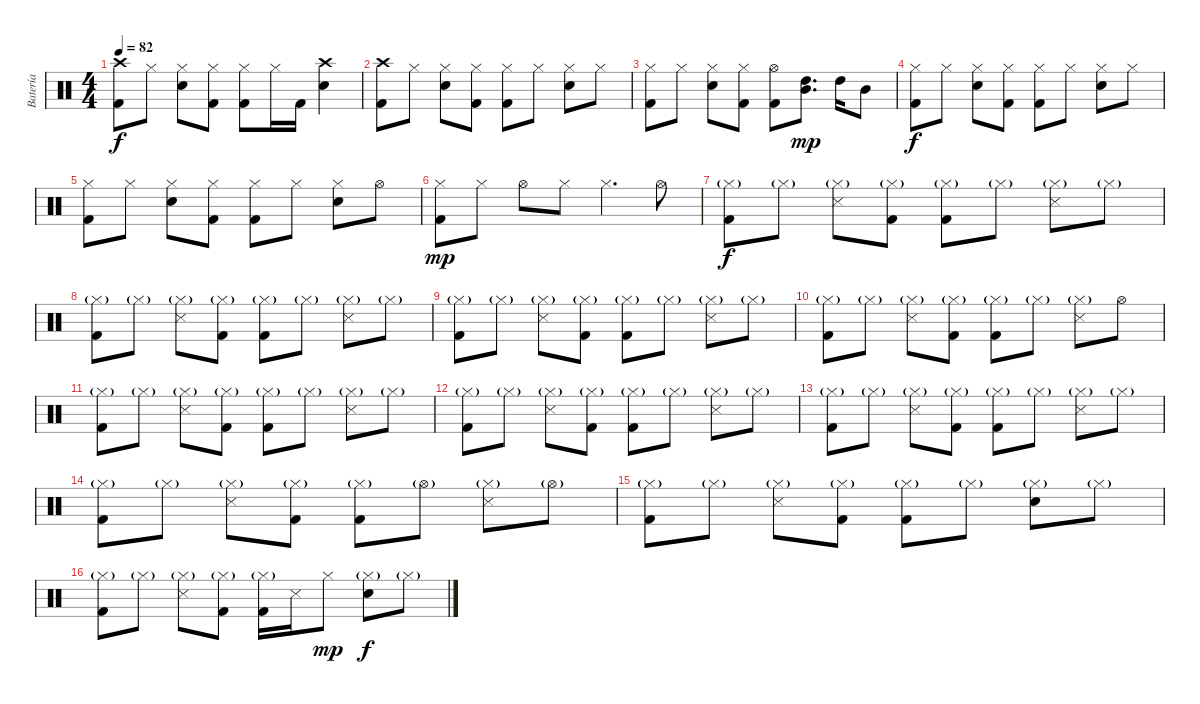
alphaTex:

\track ("Batería" "Batería") {instrument percussion}
\staff {score}
\articulation defaults
\ts (4 4)
\tempo 82
\clef neutral
\ks c
("Kick (hit) 2" "Crash high (hit)").8{dy f} "Hi-Hat (closed)".8 ("Hi-Hat (closed)" "Snare (hit) 2").8 ("Hi-Hat (closed)" "Kick (hit) 2").8 ("Hi-Hat (closed)" "Kick (hit) 2").8 "Hi-Hat (closed)".16 "Kick (hit) 2".16 ("Crash high (hit)" "Snare (hit) 2").4 |
("Kick (hit) 2" "Crash high (hit)").8 "Hi-Hat (closed)".8 ("Hi-Hat (closed)" "Snare (hit) 2").8 ("Hi-Hat (closed)" "Kick (hit) 2").8 ("Hi-Hat (closed)" "Kick (hit) 2").8 "Hi-Hat (closed)".8 ("Hi-Hat (closed)" "Snare (hit) 2").8 "Hi-Hat (closed)".8 |
("Kick (hit) 2" "Hi-Hat (closed)").8 "Hi-Hat (closed)".8 ("Hi-Hat (closed)" "Snare (hit) 2").8 ("Hi-Hat (closed)" "Kick (hit) 2").8 ("Hi-Hat (open)" "Kick (hit) 2").8 ("High Tom (hit)" "Mid Tom (hit)").8{d dy mp} "High Tom (hit)".16 "Mid Tom (hit)".8 |
("Kick (hit) 2" "Hi-Hat (closed)").8{dy f} "Hi-Hat (closed)".8 ("Hi-Hat (closed)" "Snare (hit) 2").8 ("Hi-Hat (closed)" "Kick (hit) 2").8 ("Hi-Hat (closed)" "Kick (hit) 2").8 "Hi-Hat (closed)".8 ("Hi-Hat (closed)" "Snare (hit) 2").8 "Hi-Hat (closed)".8 |
("Kick (hit) 2" "Hi-Hat (closed)").8 "Hi-Hat (closed)".8 ("Hi-Hat (closed)" "Snare (hit) 2").8 ("Hi-Hat (closed)" "Kick (hit) 2").8 ("Hi-Hat (closed)" "Kick (hit) 2").8 "Hi-Hat (closed)".8 ("Hi-Hat (closed)" "Snare (hit) 2").8 "Hi-Hat (open)".8 |
("Kick (hit) 2" "Hi-Hat (closed)").8{dy mp} "Hi-Hat (closed)".8 "Hi-Hat (open)".8 "Hi-Hat (closed)".8 "Hi-Hat (closed)".4{d} "Hi-Hat (open)".8 |
("Hi-Hat (closed)"{g} "Kick (hit) 2").8{dy f} "Hi-Hat (closed)"{g}.8 ("Hi-Hat (closed)"{g} "Snare (side stick) 3").8 ("Hi-Hat (closed)"{g} "Kick (hit) 2").8 ("Hi-Hat (closed)"{g} "Kick (hit) 2").8 "Hi-Hat (closed)"{g}.8 ("Hi-Hat (closed)"{g} "Snare (side stick) 3").8 "Hi-Hat (closed)"{g}.8 |
("Hi-Hat (closed)"{g} "Kick (hit) 2").8 "Hi-Hat (closed)"{g}.8 ("Hi-Hat (closed)"{g} "Snare (side stick) 3").8 ("Hi-Hat (closed)"{g} "Kick (hit) 2").8 ("Hi-Hat (closed)"{g} "Kick (hit) 2").8 "Hi-Hat (closed)"{g}.8 ("Hi-Hat (closed)"{g} "Snare (side stick) 3").8 "Hi-Hat (closed)"{g}.8 |
("Hi-Hat (closed)"{g} "Kick (hit) 2").8 "Hi-Hat (closed)"{g}.8 ("Hi-Hat (closed)"{g} "Snare (side stick) 3").8 ("Hi-Hat (closed)"{g} "Kick (hit) 2").8 ("Hi-Hat (closed)"{g} "Kick (hit) 2").8 "Hi-Hat (closed)"{g}.8 ("Hi-Hat (closed)"{g} "Snare (side stick) 3").8 "Hi-Hat (closed)"{g}.8 |
("Hi-Hat (closed)"{g} "Kick (hit) 2").8 "Hi-Hat (closed)"{g}.8 ("Hi-Hat (closed)"{g} "Snare (side stick) 3").8 ("Hi-Hat (closed)"{g} "Kick (hit) 2").8 ("Hi-Hat (closed)"{g} "Kick (hit) 2").8 "Hi-Hat (closed)"{g}.8 ("Hi-Hat (closed)"{g} "Snare (side stick) 3").8 "Hi-Hat (open)".8 |
("Hi-Hat (closed)"{g} "Kick (hit) 2").8 "Hi-Hat (closed)"{g}.8 ("Hi-Hat (closed)"{g} "Snare (side stick) 3").8 ("Hi-Hat (closed)"{g} "Kick (hit) 2").8 ("Hi-Hat (closed)"{g} "Kick (hit) 2").8 "Hi-Hat (closed)"{g}.8 ("Hi-Hat (closed)"{g} "Snare (side stick) 3").8 "Hi-Hat (closed)"{g}.8 |
("Hi-Hat (closed)"{g} "Kick (hit) 2").8 "Hi-Hat (closed)"{g}.8 ("Hi-Hat (closed)"{g} "Snare (side stick) 3").8 ("Hi-Hat (closed)"{g} "Kick (hit) 2").8 ("Hi-Hat (closed)"{g} "Kick (hit) 2").8 "Hi-Hat (closed)"{g}.8 ("Hi-Hat (closed)"{g} "Snare (side stick) 3").8 "Hi-Hat (closed)"{g}.8 |
("Hi-Hat (closed)"{g} "Kick (hit) 2").8 "Hi-Hat (closed)"{g}.8 ("Hi-Hat (closed)"{g} "Snare (side stick) 3").8 ("Hi-Hat (closed)"{g} "Kick (hit) 2").8 ("Hi-Hat (closed)"{g} "Kick (hit) 2").8 "Hi-Hat (closed)"{g}.8 ("Hi-Hat (closed)"{g} "Snare (side stick) 3").8 "Hi-Hat (closed)"{g}.8 |
("Hi-Hat (closed)"{g} "Kick (hit) 2").8 "Hi-Hat (closed)"{g}.8 ("Hi-Hat (closed)"{g} "Snare (side stick) 3").8 ("Hi-Hat (closed)"{g} "Kick (hit) 2").8 ("Hi-Hat (closed)"{g} "Kick (hit) 2").8 "Hi-Hat (open)"{g}.8 ("Hi-Hat (closed)"{g} "Snare (side stick) 3").8 "Hi-Hat (open)"{g}.8 |
("Hi-Hat (closed)"{g} "Kick (hit) 2").8 "Hi-Hat (closed)"{g}.8 ("Hi-Hat (closed)"{g} "Snare (side stick) 3").8 ("Hi-Hat (closed)"{g} "Kick (hit) 2").8 ("Hi-Hat (closed)"{g} "Kick (hit) 2").8 "Hi-Hat (closed)"{g}.8 ("Hi-Hat (closed)"{g} "Snare (hit) 2").8 "Hi-Hat (closed)"{g}.8 |
("Hi-Hat (closed)"{g} "Kick (hit) 2").8 "Hi-Hat (closed)"{g}.8 ("Hi-Hat (closed)"{g} "Snare (side stick) 3").8 ("Hi-Hat (closed)"{g} "Kick (hit) 2").8 ("Hi-Hat (closed)"{g} "Kick (hit) 2").16 "Snare (side stick) 3".16 "Hi-Hat (closed)".8{dy mp} ("Hi-Hat (closed)"{g} "Snare (hit) 2").8{dy f} "Hi-Hat (closed)"{g}.8
